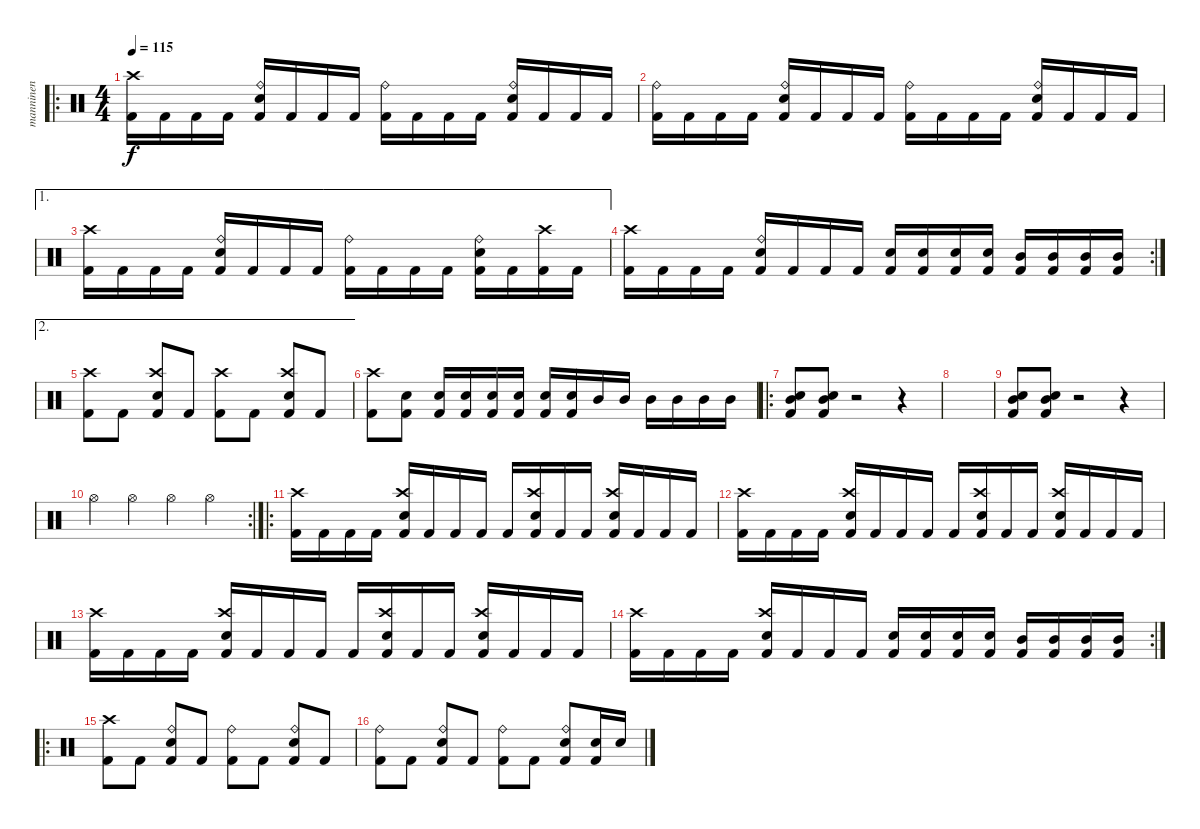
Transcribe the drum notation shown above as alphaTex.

\track ("manninen" "manninen") {instrument percussion}
\staff {score}
\articulation defaults
\ro
\ts (4 4)
\tempo 115
\clef neutral
\ks c
("Kick (hit) 2" "Crash high (hit)").16{dy f} "Kick (hit) 2".16 "Kick (hit) 2".16 "Kick (hit) 2".16 ("Kick (hit) 2" "Ride (bell)" "Electric Snare (hit)").16 "Kick (hit) 2".16 "Kick (hit) 2".16 "Kick (hit) 2".16 ("Kick (hit) 2" "Ride (bell)").16 "Kick (hit) 2".16 "Kick (hit) 2".16 "Kick (hit) 2".16 ("Kick (hit) 2" "Ride (bell)" "Electric Snare (hit)").16 "Kick (hit) 2".16 "Kick (hit) 2".16 "Kick (hit) 2".16 |
("Kick (hit) 2" "Ride (bell)").16 "Kick (hit) 2".16 "Kick (hit) 2".16 "Kick (hit) 2".16 ("Kick (hit) 2" "Ride (bell)" "Electric Snare (hit)").16 "Kick (hit) 2".16 "Kick (hit) 2".16 "Kick (hit) 2".16 ("Kick (hit) 2" "Ride (bell)").16 "Kick (hit) 2".16 "Kick (hit) 2".16 "Kick (hit) 2".16 ("Kick (hit) 2" "Ride (bell)" "Electric Snare (hit)").16 "Kick (hit) 2".16 "Kick (hit) 2".16 "Kick (hit) 2".16 |
\ae 1
("Kick (hit) 2" "Crash high (hit)").16 "Kick (hit) 2".16 "Kick (hit) 2".16 "Kick (hit) 2".16 ("Kick (hit) 2" "Ride (bell)" "Electric Snare (hit)").16 "Kick (hit) 2".16 "Kick (hit) 2".16 "Kick (hit) 2".16 ("Kick (hit) 2" "Ride (bell)").16 "Kick (hit) 2".16 "Kick (hit) 2".16 "Kick (hit) 2".16 ("Kick (hit) 2" "Ride (bell)" "Electric Snare (hit)").16 "Kick (hit) 2".16 ("Kick (hit) 2" "Crash high (hit)").16 "Kick (hit) 2".16 |
\rc 2
("Kick (hit) 2" "Crash high (hit)").16 "Kick (hit) 2".16 "Kick (hit) 2".16 "Kick (hit) 2".16 ("Kick (hit) 2" "Ride (bell)" "Electric Snare (hit)").16 "Kick (hit) 2".16 "Kick (hit) 2".16 "Kick (hit) 2".16 ("Kick (hit) 2" "Electric Snare (hit)").16 ("Kick (hit) 2" "Electric Snare (hit)").16 ("Kick (hit) 2" "Electric Snare (hit)").16 ("Kick (hit) 2" "Electric Snare (hit)").16 ("Kick (hit) 2" "Mid Tom (hit)").16 ("Kick (hit) 2" "Mid Tom (hit)").16 ("Kick (hit) 2" "Mid Tom (hit)").16 ("Kick (hit) 2" "Mid Tom (hit)").16 |
\ae 2
("Kick (hit) 2" "Crash high (hit)").8 "Kick (hit) 2".8 ("Kick (hit) 2" "Crash high (hit)" "Electric Snare (hit)").8 "Kick (hit) 2".8 ("Kick (hit) 2" "Crash high (hit)").8 "Kick (hit) 2".8 ("Kick (hit) 2" "Crash high (hit)" "Electric Snare (hit)").8 "Kick (hit) 2".8 |
("Kick (hit) 2" "Crash high (hit)").8 ("Kick (hit) 2" "Electric Snare (hit)").8 ("Kick (hit) 2" "Electric Snare (hit)").16 ("Kick (hit) 2" "Electric Snare (hit)").16 ("Kick (hit) 2" "Electric Snare (hit)").16 ("Kick (hit) 2" "Electric Snare (hit)").16 ("Kick (hit) 2" "Electric Snare (hit)").16 ("Kick (hit) 2" "Electric Snare (hit)").16 "Mid Tom (hit)".16 "Mid Tom (hit)".16 "Mid Tom (hit)".16 "Mid Tom (hit)".16 "Mid Tom (hit)".16 "Mid Tom (hit)".16 |
\ro
("Kick (hit) 2" "Mid Tom (hit)" "Electric Snare (hit)").8 ("Kick (hit) 2" "Mid Tom (hit)" "Electric Snare (hit)").8 r.2 r.4 |
|
("Kick (hit) 2" "Electric Snare (hit)" "Mid Tom (hit)").8 ("Kick (hit) 2" "Electric Snare (hit)" "Mid Tom (hit)").8 r.2 r.4 |
\rc 2 "Hi-Hat (open)".4 "Hi-Hat (open)".4 "Hi-Hat (open)".4 "Hi-Hat (open)".4
|
\ro
("Kick (hit) 2" "Crash high (hit)").16 "Kick (hit) 2".16 "Kick (hit) 2".16 "Kick (hit) 2".16 ("Kick (hit) 2" "Crash high (hit)" "Electric Snare (hit)").16 "Kick (hit) 2".16 "Kick (hit) 2".16 "Kick (hit) 2".16 "Kick (hit) 2".16 ("Kick (hit) 2" "Crash high (hit)" "Electric Snare (hit)").16 "Kick (hit) 2".16 "Kick (hit) 2".16 ("Kick (hit) 2" "Crash high (hit)" "Electric Snare (hit)").16 "Kick (hit) 2".16 "Kick (hit) 2".16 "Kick (hit) 2".16 |
("Kick (hit) 2" "Crash high (hit)").16 "Kick (hit) 2".16 "Kick (hit) 2".16 "Kick (hit) 2".16 ("Kick (hit) 2" "Crash high (hit)" "Electric Snare (hit)").16 "Kick (hit) 2".16 "Kick (hit) 2".16 "Kick (hit) 2".16 "Kick (hit) 2".16 ("Kick (hit) 2" "Crash high (hit)" "Electric Snare (hit)").16 "Kick (hit) 2".16 "Kick (hit) 2".16 ("Kick (hit) 2" "Crash high (hit)" "Electric Snare (hit)").16 "Kick (hit) 2".16 "Kick (hit) 2".16 "Kick (hit) 2".16 |
("Kick (hit) 2" "Crash high (hit)").16 "Kick (hit) 2".16 "Kick (hit) 2".16 "Kick (hit) 2".16 ("Kick (hit) 2" "Crash high (hit)" "Electric Snare (hit)").16 "Kick (hit) 2".16 "Kick (hit) 2".16 "Kick (hit) 2".16 "Kick (hit) 2".16 ("Kick (hit) 2" "Crash high (hit)" "Electric Snare (hit)").16 "Kick (hit) 2".16 "Kick (hit) 2".16 ("Kick (hit) 2" "Crash high (hit)" "Electric Snare (hit)").16 "Kick (hit) 2".16 "Kick (hit) 2".16 "Kick (hit) 2".16 |
\rc 2
("Kick (hit) 2" "Crash high (hit)").16 "Kick (hit) 2".16 "Kick (hit) 2".16 "Kick (hit) 2".16 ("Kick (hit) 2" "Crash high (hit)" "Electric Snare (hit)").16 "Kick (hit) 2".16 "Kick (hit) 2".16 "Kick (hit) 2".16 ("Kick (hit) 2" "Electric Snare (hit)").16 ("Kick (hit) 2" "Electric Snare (hit)").16 ("Kick (hit) 2" "Electric Snare (hit)").16 ("Kick (hit) 2" "Electric Snare (hit)").16 ("Kick (hit) 2" "Mid Tom (hit)").16 ("Kick (hit) 2" "Mid Tom (hit)").16 ("Kick (hit) 2" "Mid Tom (hit)").16 ("Kick (hit) 2" "Mid Tom (hit)").16 |
\ro
("Kick (hit) 2" "Crash high (hit)").8 "Kick (hit) 2".8 ("Kick (hit) 2" "Ride (bell)" "Electric Snare (hit)").8 "Kick (hit) 2".8 ("Kick (hit) 2" "Ride (bell)").8 "Kick (hit) 2".8 ("Kick (hit) 2" "Ride (bell)" "Electric Snare (hit)").8 "Kick (hit) 2".8 |
("Kick (hit) 2" "Ride (bell)").8 "Kick (hit) 2".8 ("Kick (hit) 2" "Ride (bell)" "Electric Snare (hit)").8 "Kick (hit) 2".8 ("Kick (hit) 2" "Ride (bell)").8 "Kick (hit) 2".8 ("Kick (hit) 2" "Ride (bell)" "Electric Snare (hit)").8 ("Kick (hit) 2" "Electric Snare (hit)").16 "Electric Snare (hit)".16
